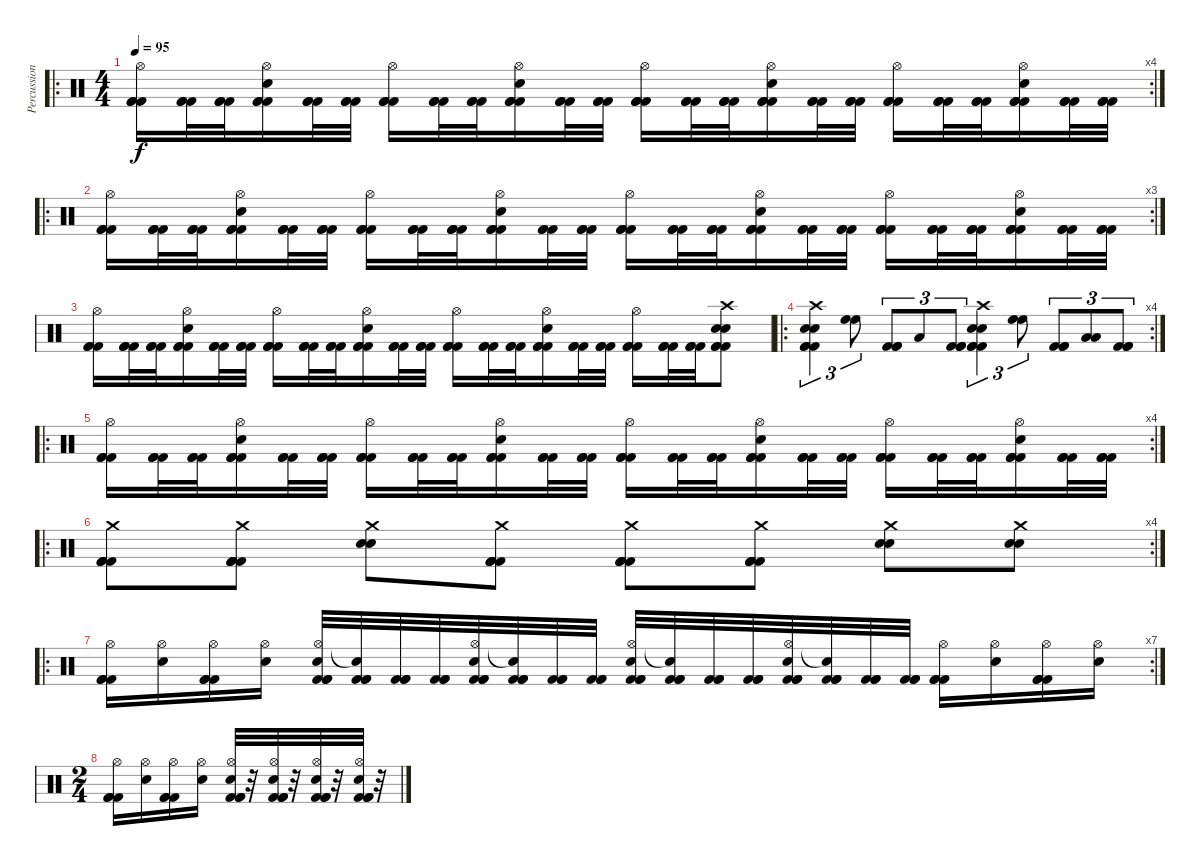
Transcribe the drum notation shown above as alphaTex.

\track ("Percussion" "Percussion") {instrument percussion}
\staff {score}
\articulation defaults
\ro
\rc 4
\ts (4 4)
\tempo 95
\clef neutral
\ks c
("Kick (hit) 2" "Kick (hit) 2" "Kick (hit) 2" "Hi-Hat (open)").16{dy f} ("Kick (hit) 2" "Kick (hit) 2" "Kick (hit) 2").32 ("Kick (hit) 2" "Kick (hit) 2" "Kick (hit) 2").32 ("Kick (hit) 2" "Kick (hit) 2" "Kick (hit) 2" "Hi-Hat (open)" "Snare (hit) 2").16 ("Kick (hit) 2" "Kick (hit) 2" "Kick (hit) 2").32 ("Kick (hit) 2" "Kick (hit) 2" "Kick (hit) 2").32 ("Kick (hit) 2" "Kick (hit) 2" "Kick (hit) 2" "Hi-Hat (open)").16 ("Kick (hit) 2" "Kick (hit) 2" "Kick (hit) 2").32 ("Kick (hit) 2" "Kick (hit) 2" "Kick (hit) 2").32 ("Kick (hit) 2" "Kick (hit) 2" "Kick (hit) 2" "Hi-Hat (open)" "Snare (hit) 2").16 ("Kick (hit) 2" "Kick (hit) 2" "Kick (hit) 2").32 ("Kick (hit) 2" "Kick (hit) 2" "Kick (hit) 2").32 ("Kick (hit) 2" "Kick (hit) 2" "Kick (hit) 2" "Hi-Hat (open)").16 ("Kick (hit) 2" "Kick (hit) 2" "Kick (hit) 2").32 ("Kick (hit) 2" "Kick (hit) 2" "Kick (hit) 2").32 ("Kick (hit) 2" "Kick (hit) 2" "Kick (hit) 2" "Hi-Hat (open)" "Snare (hit) 2").16 ("Kick (hit) 2" "Kick (hit) 2" "Kick (hit) 2").32 ("Kick (hit) 2" "Kick (hit) 2" "Kick (hit) 2").32 ("Kick (hit) 2" "Kick (hit) 2" "Kick (hit) 2" "Hi-Hat (open)").16 ("Kick (hit) 2" "Kick (hit) 2" "Kick (hit) 2").32 ("Kick (hit) 2" "Kick (hit) 2" "Kick (hit) 2").32 ("Kick (hit) 2" "Kick (hit) 2" "Kick (hit) 2" "Hi-Hat (open)" "Snare (hit) 2").16 ("Kick (hit) 2" "Kick (hit) 2" "Kick (hit) 2").32 ("Kick (hit) 2" "Kick (hit) 2" "Kick (hit) 2").32 |
\ro
\rc 3
("Kick (hit) 2" "Kick (hit) 2" "Kick (hit) 2" "Hi-Hat (open)").16 ("Kick (hit) 2" "Kick (hit) 2" "Kick (hit) 2").32 ("Kick (hit) 2" "Kick (hit) 2" "Kick (hit) 2").32 ("Kick (hit) 2" "Kick (hit) 2" "Kick (hit) 2" "Hi-Hat (open)" "Snare (hit) 2").16 ("Kick (hit) 2" "Kick (hit) 2" "Kick (hit) 2").32 ("Kick (hit) 2" "Kick (hit) 2" "Kick (hit) 2").32 ("Kick (hit) 2" "Kick (hit) 2" "Kick (hit) 2" "Hi-Hat (open)").16 ("Kick (hit) 2" "Kick (hit) 2" "Kick (hit) 2").32 ("Kick (hit) 2" "Kick (hit) 2" "Kick (hit) 2").32 ("Kick (hit) 2" "Kick (hit) 2" "Kick (hit) 2" "Hi-Hat (open)" "Snare (hit) 2").16 ("Kick (hit) 2" "Kick (hit) 2" "Kick (hit) 2").32 ("Kick (hit) 2" "Kick (hit) 2" "Kick (hit) 2").32 ("Kick (hit) 2" "Kick (hit) 2" "Kick (hit) 2" "Hi-Hat (open)").16 ("Kick (hit) 2" "Kick (hit) 2" "Kick (hit) 2").32 ("Kick (hit) 2" "Kick (hit) 2" "Kick (hit) 2").32 ("Kick (hit) 2" "Kick (hit) 2" "Kick (hit) 2" "Hi-Hat (open)" "Snare (hit) 2").16 ("Kick (hit) 2" "Kick (hit) 2" "Kick (hit) 2").32 ("Kick (hit) 2" "Kick (hit) 2" "Kick (hit) 2").32 ("Kick (hit) 2" "Kick (hit) 2" "Kick (hit) 2" "Hi-Hat (open)").16 ("Kick (hit) 2" "Kick (hit) 2" "Kick (hit) 2").32 ("Kick (hit) 2" "Kick (hit) 2" "Kick (hit) 2").32 ("Kick (hit) 2" "Kick (hit) 2" "Kick (hit) 2" "Hi-Hat (open)" "Snare (hit) 2").16 ("Kick (hit) 2" "Kick (hit) 2" "Kick (hit) 2").32 ("Kick (hit) 2" "Kick (hit) 2" "Kick (hit) 2").32 |
("Kick (hit) 2" "Kick (hit) 2" "Kick (hit) 2" "Hi-Hat (open)").16 ("Kick (hit) 2" "Kick (hit) 2" "Kick (hit) 2").32 ("Kick (hit) 2" "Kick (hit) 2" "Kick (hit) 2").32 ("Kick (hit) 2" "Kick (hit) 2" "Kick (hit) 2" "Hi-Hat (open)" "Snare (hit) 2").16 ("Kick (hit) 2" "Kick (hit) 2" "Kick (hit) 2").32 ("Kick (hit) 2" "Kick (hit) 2" "Kick (hit) 2").32 ("Kick (hit) 2" "Kick (hit) 2" "Kick (hit) 2" "Hi-Hat (open)").16 ("Kick (hit) 2" "Kick (hit) 2" "Kick (hit) 2").32 ("Kick (hit) 2" "Kick (hit) 2" "Kick (hit) 2").32 ("Kick (hit) 2" "Kick (hit) 2" "Kick (hit) 2" "Hi-Hat (open)" "Snare (hit) 2").16 ("Kick (hit) 2" "Kick (hit) 2" "Kick (hit) 2").32 ("Kick (hit) 2" "Kick (hit) 2" "Kick (hit) 2").32 ("Kick (hit) 2" "Kick (hit) 2" "Kick (hit) 2" "Hi-Hat (open)").16 ("Kick (hit) 2" "Kick (hit) 2" "Kick (hit) 2").32 ("Kick (hit) 2" "Kick (hit) 2" "Kick (hit) 2").32 ("Kick (hit) 2" "Kick (hit) 2" "Kick (hit) 2" "Hi-Hat (open)" "Snare (hit) 2").16 ("Kick (hit) 2" "Kick (hit) 2" "Kick (hit) 2").32 ("Kick (hit) 2" "Kick (hit) 2" "Kick (hit) 2").32 ("Kick (hit) 2" "Kick (hit) 2" "Kick (hit) 2" "Hi-Hat (open)").16 ("Kick (hit) 2" "Kick (hit) 2" "Kick (hit) 2").32 ("Kick (hit) 2" "Kick (hit) 2" "Kick (hit) 2").32 ("Kick (hit) 2" "Kick (hit) 2" "Kick (hit) 2" "Crash high (hit)" "Snare (hit) 2" "Snare (hit) 2").8 |
\ro
\rc 4
("Crash high (hit)" "Snare (hit) 2" "Snare (hit) 2" "Kick (hit) 2" "Kick (hit) 2" "Kick (hit) 2").4{tu (3 2)} ("High Floor Tom (hit)" "High Floor Tom (hit)").8{tu (3 2)} ("Kick (hit) 2" "Kick (hit) 2" "Kick (hit) 2").8{tu (3 2)} "Low Tom (hit)".8{tu (3 2)} ("Kick (hit) 2" "Kick (hit) 2" "Kick (hit) 2").8{tu (3 2)} ("Crash high (hit)" "Snare (hit) 2" "Snare (hit) 2" "Kick (hit) 2" "Kick (hit) 2" "Kick (hit) 2").4{tu (3 2)} ("High Floor Tom (hit)" "High Floor Tom (hit)").8{tu (3 2)} ("Kick (hit) 2" "Kick (hit) 2" "Kick (hit) 2").8{tu (3 2)} ("Low Tom (hit)" "Low Tom (hit)").8{tu (3 2)} ("Kick (hit) 2" "Kick (hit) 2" "Kick (hit) 2").8{tu (3 2)} |
\ro
\rc 4
("Kick (hit) 2" "Kick (hit) 2" "Kick (hit) 2" "Hi-Hat (open)").16 ("Kick (hit) 2" "Kick (hit) 2" "Kick (hit) 2").32 ("Kick (hit) 2" "Kick (hit) 2" "Kick (hit) 2").32 ("Kick (hit) 2" "Kick (hit) 2" "Kick (hit) 2" "Hi-Hat (open)" "Snare (hit) 2").16 ("Kick (hit) 2" "Kick (hit) 2" "Kick (hit) 2").32 ("Kick (hit) 2" "Kick (hit) 2" "Kick (hit) 2").32 ("Kick (hit) 2" "Kick (hit) 2" "Kick (hit) 2" "Hi-Hat (open)").16 ("Kick (hit) 2" "Kick (hit) 2" "Kick (hit) 2").32 ("Kick (hit) 2" "Kick (hit) 2" "Kick (hit) 2").32 ("Kick (hit) 2" "Kick (hit) 2" "Kick (hit) 2" "Hi-Hat (open)" "Snare (hit) 2").16 ("Kick (hit) 2" "Kick (hit) 2" "Kick (hit) 2").32 ("Kick (hit) 2" "Kick (hit) 2" "Kick (hit) 2").32 ("Kick (hit) 2" "Kick (hit) 2" "Kick (hit) 2" "Hi-Hat (open)").16 ("Kick (hit) 2" "Kick (hit) 2" "Kick (hit) 2").32 ("Kick (hit) 2" "Kick (hit) 2" "Kick (hit) 2").32 ("Kick (hit) 2" "Kick (hit) 2" "Kick (hit) 2" "Hi-Hat (open)" "Snare (hit) 2").16 ("Kick (hit) 2" "Kick (hit) 2" "Kick (hit) 2").32 ("Kick (hit) 2" "Kick (hit) 2" "Kick (hit) 2").32 ("Kick (hit) 2" "Kick (hit) 2" "Kick (hit) 2" "Hi-Hat (open)").16 ("Kick (hit) 2" "Kick (hit) 2" "Kick (hit) 2").32 ("Kick (hit) 2" "Kick (hit) 2" "Kick (hit) 2").32 ("Kick (hit) 2" "Kick (hit) 2" "Kick (hit) 2" "Hi-Hat (open)" "Snare (hit) 2").16 ("Kick (hit) 2" "Kick (hit) 2" "Kick (hit) 2").32 ("Kick (hit) 2" "Kick (hit) 2" "Kick (hit) 2").32 |
\ro
\rc 4
("Crash medium (hit)" "Kick (hit) 2" "Kick (hit) 2" "Kick (hit) 2" "Kick (hit) 2").8 ("Crash medium (hit)" "Kick (hit) 2" "Kick (hit) 2" "Kick (hit) 2" "Kick (hit) 2").8 ("Crash medium (hit)" "Snare (hit) 2" "Snare (hit) 2").8 ("Crash medium (hit)" "Kick (hit) 2" "Kick (hit) 2" "Kick (hit) 2" "Kick (hit) 2").8 ("Crash medium (hit)" "Kick (hit) 2" "Kick (hit) 2" "Kick (hit) 2" "Kick (hit) 2").8 ("Crash medium (hit)" "Kick (hit) 2" "Kick (hit) 2" "Kick (hit) 2" "Kick (hit) 2").8 ("Crash medium (hit)" "Snare (hit) 2" "Snare (hit) 2").8 ("Crash medium (hit)" "Snare (hit) 2" "Snare (hit) 2").8 |
\ro
\rc 7
("Hi-Hat (open)" "Kick (hit) 2" "Kick (hit) 2" "Kick (hit) 2").16 ("Hi-Hat (open)" "Snare (hit) 2").16 ("Hi-Hat (open)" "Kick (hit) 2" "Kick (hit) 2" "Kick (hit) 2").16 ("Hi-Hat (open)" "Snare (hit) 2").16 ("Kick (hit) 2" "Kick (hit) 2" "Kick (hit) 2" "Hi-Hat (open)" "Snare (hit) 2").32 ("Kick (hit) 2" "Kick (hit) 2" "Kick (hit) 2" "Snare (hit)"{t}).32 ("Kick (hit) 2" "Kick (hit) 2" "Kick (hit) 2").32 ("Kick (hit) 2" "Kick (hit) 2" "Kick (hit) 2").32 ("Kick (hit) 2" "Kick (hit) 2" "Kick (hit) 2" "Hi-Hat (open)" "Snare (hit) 2").32 ("Kick (hit) 2" "Kick (hit) 2" "Kick (hit) 2" "Snare (hit)"{t}).32 ("Kick (hit) 2" "Kick (hit) 2" "Kick (hit) 2").32 ("Kick (hit) 2" "Kick (hit) 2" "Kick (hit) 2").32 ("Kick (hit) 2" "Kick (hit) 2" "Kick (hit) 2" "Hi-Hat (open)" "Snare (hit) 2").32 ("Kick (hit) 2" "Kick (hit) 2" "Kick (hit) 2" "Snare (hit)"{t}).32 ("Kick (hit) 2" "Kick (hit) 2" "Kick (hit) 2").32 ("Kick (hit) 2" "Kick (hit) 2" "Kick (hit) 2").32 ("Kick (hit) 2" "Kick (hit) 2" "Kick (hit) 2" "Hi-Hat (open)" "Snare (hit) 2").32 ("Kick (hit) 2" "Kick (hit) 2" "Kick (hit) 2" "Snare (hit)"{t}).32 ("Kick (hit) 2" "Kick (hit) 2" "Kick (hit) 2").32 ("Kick (hit) 2" "Kick (hit) 2" "Kick (hit) 2").32 ("Hi-Hat (open)" "Kick (hit) 2" "Kick (hit) 2" "Kick (hit) 2").16 ("Hi-Hat (open)" "Snare (hit) 2").16 ("Hi-Hat (open)" "Kick (hit) 2" "Kick (hit) 2" "Kick (hit) 2").16 ("Hi-Hat (open)" "Snare (hit) 2").16 |
\ts (2 4)
("Hi-Hat (open)" "Kick (hit) 2" "Kick (hit) 2" "Kick (hit) 2").16 ("Hi-Hat (open)" "Snare (hit) 2").16 ("Hi-Hat (open)" "Kick (hit) 2" "Kick (hit) 2" "Kick (hit) 2").16 ("Hi-Hat (open)" "Snare (hit) 2").16 ("Kick (hit) 2" "Kick (hit) 2" "Kick (hit) 2" "Hi-Hat (open)" "Snare (hit) 2").32 r.32 ("Kick (hit) 2" "Kick (hit) 2" "Kick (hit) 2" "Hi-Hat (open)" "Snare (hit) 2").32 r.32 ("Kick (hit) 2" "Kick (hit) 2" "Kick (hit) 2" "Hi-Hat (open)" "Snare (hit) 2").32 r.32 ("Kick (hit) 2" "Kick (hit) 2" "Kick (hit) 2" "Hi-Hat (open)" "Snare (hit) 2").32 r.32
